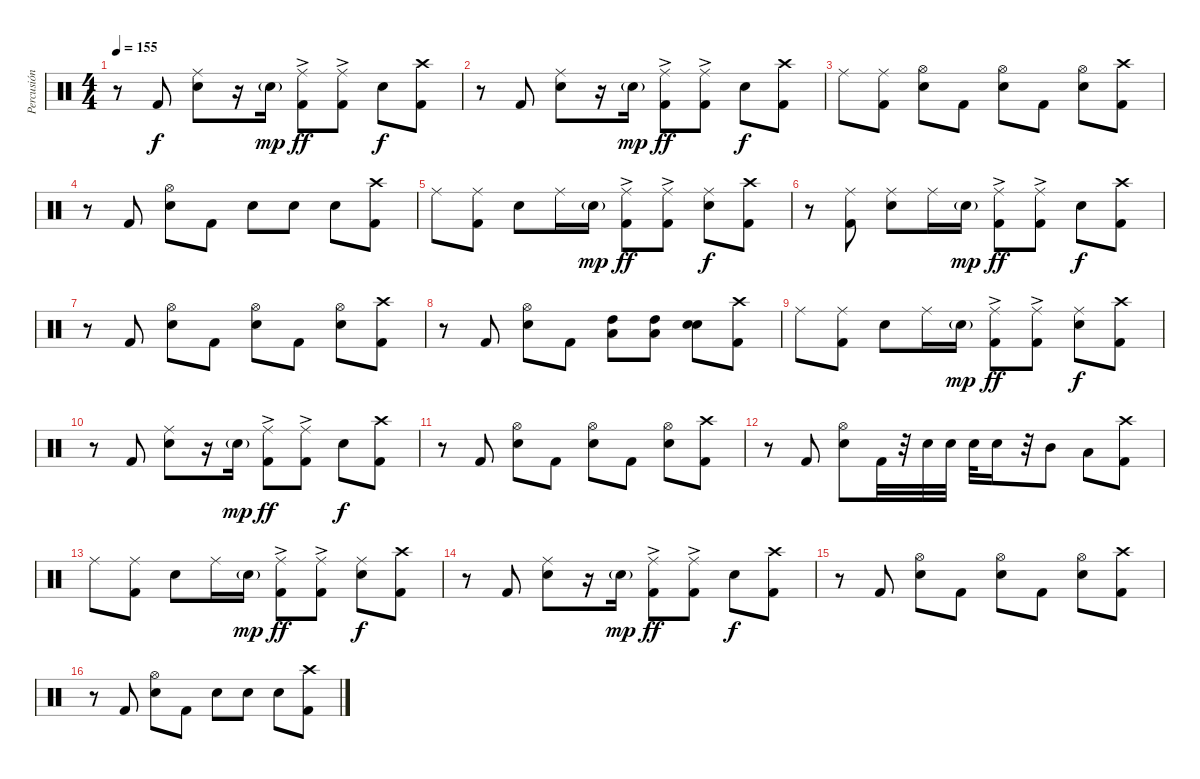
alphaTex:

\track ("Percusión" "Percusión") {instrument percussion}
\staff {score}
\articulation defaults
\ts (4 4)
\tempo 155
\clef neutral
\ks c
r.8{dy f} "Kick (hit) 2".8 ("Ride (middle)" "Snare (hit) 2").8 r.16 "Snare (hit) 2"{g}.16{dy mp} ("Ride (middle)"{ac} "Kick (hit) 2").8{dy ff} ("Ride (middle)"{ac} "Kick (hit) 2").8 "Snare (hit) 2".8{dy f} ("Crash high (hit)" "Kick (hit) 2").8 |
r.8 "Kick (hit) 2".8 ("Ride (middle)" "Snare (hit) 2").8 r.16 "Snare (hit) 2"{g}.16{dy mp} ("Ride (middle)"{ac} "Kick (hit) 2").8{dy ff} ("Ride (middle)"{ac} "Kick (hit) 2").8 "Snare (hit) 2".8{dy f} ("Crash high (hit)" "Kick (hit) 2").8 |
"Ride (middle)".8 ("Ride (middle)" "Kick (hit) 2").8 ("Hi-Hat (open)" "Snare (hit) 2").8 "Kick (hit) 2".8 ("Hi-Hat (open)" "Snare (hit) 2").8 "Kick (hit) 2".8 ("Hi-Hat (open)" "Snare (hit) 2").8 ("Crash high (hit)" "Kick (hit) 2").8 |
r.8 "Kick (hit) 2".8 ("Hi-Hat (open)" "Snare (hit) 2").8 "Kick (hit) 2".8 "Snare (hit) 2".8 "Snare (hit) 2".8 "Snare (hit) 2".8 ("Crash high (hit)" "Kick (hit) 2").8 |
"Ride (middle)".8 ("Ride (middle)" "Kick (hit) 2").8 "Snare (hit) 2".8 "Ride (middle)".16 "Snare (hit) 2"{g}.16{dy mp} ("Ride (middle)"{ac} "Kick (hit) 2").8{dy ff} ("Ride (middle)"{ac} "Kick (hit) 2").8 ("Ride (middle)" "Snare (hit) 2").8{dy f} ("Crash high (hit)" "Kick (hit) 2").8 |
r.8 ("Ride (middle)" "Kick (hit) 2").8 ("Ride (middle)" "Snare (hit) 2").8 "Ride (middle)".16 "Snare (hit) 2"{g}.16{dy mp} ("Ride (middle)"{ac} "Kick (hit) 2").8{dy ff} ("Ride (middle)"{ac} "Kick (hit) 2").8 "Snare (hit) 2".8{dy f} ("Crash high (hit)" "Kick (hit) 2").8 |
r.8 "Kick (hit) 2".8 ("Hi-Hat (open)" "Snare (hit) 2").8 "Kick (hit) 2".8 ("Hi-Hat (open)" "Snare (hit) 2").8 "Kick (hit) 2".8 ("Hi-Hat (open)" "Snare (hit) 2").8 ("Crash high (hit)" "Kick (hit) 2").8 |
r.8 "Kick (hit) 2".8 ("Hi-Hat (open)" "Snare (hit) 2").8 "Kick (hit) 2".8 ("High Tom (hit)" "Low Tom (hit)").8 ("High Tom (hit)" "Low Tom (hit)").8 ("Snare (hit) 2" "Snare (hit) 2").8 ("Crash high (hit)" "Kick (hit) 2").8 |
"Ride (middle)".8 ("Ride (middle)" "Kick (hit) 2").8 "Snare (hit) 2".8 "Ride (middle)".16 "Snare (hit) 2"{g}.16{dy mp} ("Ride (middle)"{ac} "Kick (hit) 2").8{dy ff} ("Ride (middle)"{ac} "Kick (hit) 2").8 ("Ride (middle)" "Snare (hit) 2").8{dy f} ("Crash high (hit)" "Kick (hit) 2").8 |
r.8 "Kick (hit) 2".8 ("Ride (middle)" "Snare (hit) 2").8 r.16 "Snare (hit) 2"{g}.16{dy mp} ("Ride (middle)"{ac} "Kick (hit) 2").8{dy ff} ("Ride (middle)"{ac} "Kick (hit) 2").8 "Snare (hit) 2".8{dy f} ("Crash high (hit)" "Kick (hit) 2").8 |
r.8 "Kick (hit) 2".8 ("Hi-Hat (open)" "Snare (hit) 2").8 "Kick (hit) 2".8 ("Hi-Hat (open)" "Snare (hit) 2").8 "Kick (hit) 2".8 ("Hi-Hat (open)" "Snare (hit) 2").8 ("Crash high (hit)" "Kick (hit) 2").8 |
r.8 "Kick (hit) 2".8 ("Hi-Hat (open)" "Snare (hit) 2").8 "Kick (hit) 2".32 r.32 "Snare (hit) 2".32 "Snare (hit) 2".32 "Snare (hit) 2".32 "Snare (hit) 2".16 r.32 "Mid Tom (hit)".8 "Low Tom (hit)".8 ("Crash high (hit)" "Kick (hit) 2").8 |
"Ride (middle)".8 ("Ride (middle)" "Kick (hit) 2").8 "Snare (hit) 2".8 "Ride (middle)".16 "Snare (hit) 2"{g}.16{dy mp} ("Ride (middle)"{ac} "Kick (hit) 2").8{dy ff} ("Ride (middle)"{ac} "Kick (hit) 2").8 ("Ride (middle)" "Snare (hit) 2").8{dy f} ("Crash high (hit)" "Kick (hit) 2").8 |
r.8 "Kick (hit) 2".8 ("Ride (middle)" "Snare (hit) 2").8 r.16 "Snare (hit) 2"{g}.16{dy mp} ("Ride (middle)"{ac} "Kick (hit) 2").8{dy ff} ("Ride (middle)"{ac} "Kick (hit) 2").8 "Snare (hit) 2".8{dy f} ("Crash high (hit)" "Kick (hit) 2").8 |
r.8 "Kick (hit) 2".8 ("Hi-Hat (open)" "Snare (hit) 2").8 "Kick (hit) 2".8 ("Hi-Hat (open)" "Snare (hit) 2").8 "Kick (hit) 2".8 ("Hi-Hat (open)" "Snare (hit) 2").8 ("Crash high (hit)" "Kick (hit) 2").8 |
r.8 "Kick (hit) 2".8 ("Hi-Hat (open)" "Snare (hit) 2").8 "Kick (hit) 2".8 "Snare (hit) 2".8 "Snare (hit) 2".8 "Snare (hit) 2".8 ("Crash high (hit)" "Kick (hit) 2").8
